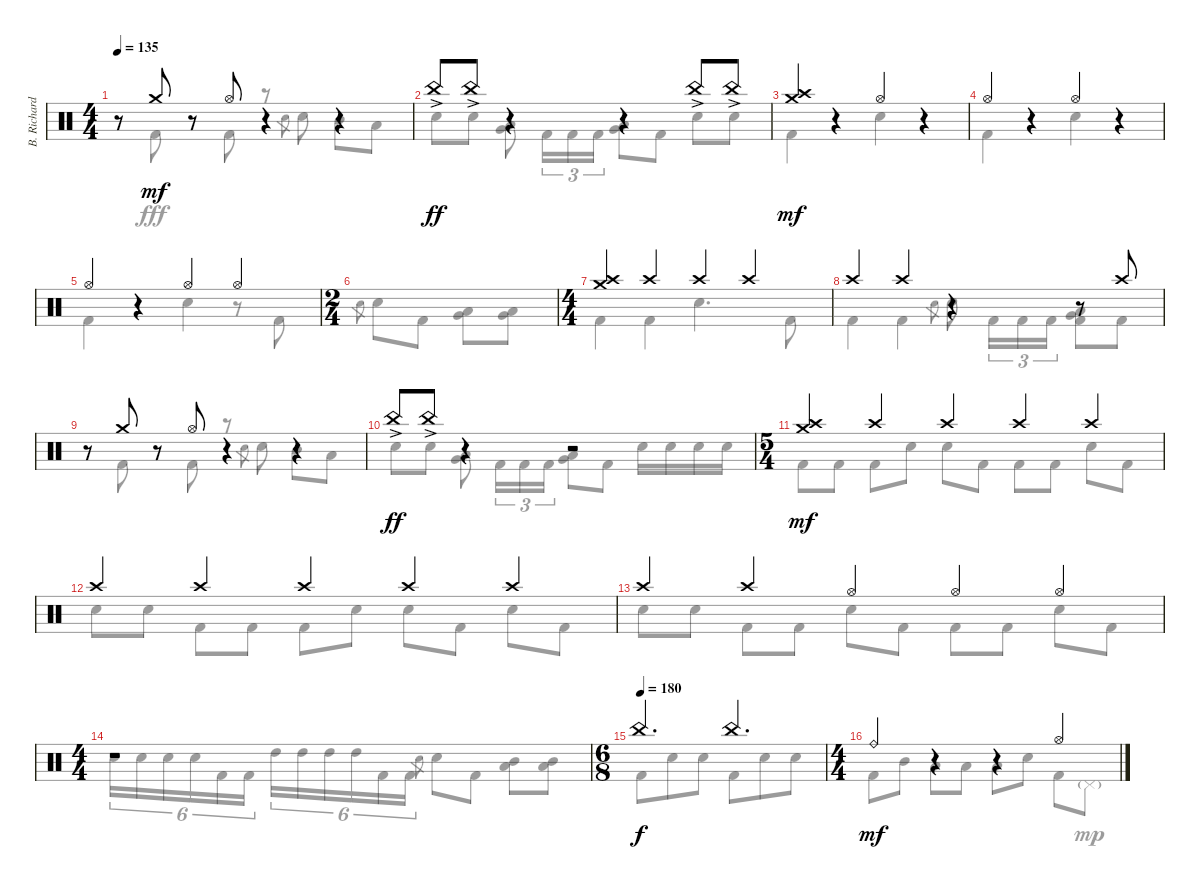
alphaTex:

\track ("B. Richardson Drums" "B. Richard") {instrument percussion}
\staff {score}
\articulation defaults
\voice
\ts (4 4)
\tempo 135
\clef neutral
\ks c
r.8{dy mf} "Crash medium (hit)".8 r.8 "Hi-Hat (open)".8 r.4 r.4 |
"China (hit)"{ac}.8{dy ff} "China (hit)"{ac}.8 r.4 r.4 "China (hit)"{ac}.8 "China (hit)"{ac}.8 |
("Crash high (hit)" "Crash medium (hit)").4{dy mf} r.4 "Hi-Hat (open)".4 r.4 |
"Hi-Hat (open)".4 r.4 "Hi-Hat (open)".4 r.4 |
"Hi-Hat (open)".4 r.4 "Hi-Hat (open)".4 "Hi-Hat (open)".4 |
\ts (2 4)
|
\ts (4 4)
("Crash high (hit)" "Crash medium (hit)").4 "Crash high (hit)".4 "Crash high (hit)".4 "Crash high (hit)".4 |
"Crash high (hit)".4 "Crash high (hit)".4 r.4 r.8 "Crash high (hit)".8 |
r.8 "Crash medium (hit)".8 r.8 "Hi-Hat (open)".8 r.4 r.4 |
"China (hit)"{ac}.8{dy ff} "China (hit)"{ac}.8 r.4 r.2 |
\ts (5 4)
("Crash high (hit)" "Crash medium (hit)").4{dy mf} "Crash high (hit)".4 "Crash high (hit)".4 "Crash high (hit)".4 "Crash high (hit)".4 |
"Crash high (hit)".4 "Crash high (hit)".4 "Crash high (hit)".4 "Crash high (hit)".4 "Crash high (hit)".4 |
"Crash high (hit)".4 "Crash high (hit)".4 "Hi-Hat (open)".4 "Hi-Hat (open)".4 "Hi-Hat (open)".4 |
\ts (4 4)
r.1 |
\ts (6 8)
\tempo (180)
"China (hit)".4{d dy f} "China (hit)".4{d} |
\ts (4 4)
"Ride (bell)".4{dy mf} r.4 r.4 "Hi-Hat (open)".4
\voice
\clef neutral
\ottava regular
\simile none
\ks c
r.8{dy fff} "Kick (hit) 2".8 r.8 "Kick (hit) 2".8 r.8 "Electric Snare (hit)".8{gr} "Electric Snare (hit)".8 "Mid Tom (hit)".8 "Low Tom (hit)".8 |
"Electric Snare (hit)".8 "Electric Snare (hit)".8 ("Low Tom (hit)" "Very Low Tom (hit)").8 "Kick (hit) 2".16{tu (3 2)} "Kick (hit) 2".16{tu (3 2)} "Kick (hit) 2".16{tu (3 2)} ("Low Tom (hit)" "Very Low Tom (hit)").8 "Kick (hit) 2".8 "Electric Snare (hit)".8 "Electric Snare (hit)".8 |
"Kick (hit) 2".4 r.4 "Electric Snare (hit)".4 r.4 |
"Kick (hit) 2".4 r.4 "Electric Snare (hit)".4 r.4 |
"Kick (hit) 2".4 r.4 "Electric Snare (hit)".4 r.8 "Kick (hit) 2".8 |
"Electric Snare (hit)".8{gr} "Electric Snare (hit)".8 "Kick (hit) 2".8 ("Low Tom (hit)" "Very Low Tom (hit)").8 ("Low Tom (hit)" "Very Low Tom (hit)").8 |
"Kick (hit) 2".4 "Kick (hit) 2".4 "Electric Snare (hit)".4{d} "Kick (hit) 2".8 |
"Kick (hit) 2".4 "Kick (hit) 2".4 "Electric Snare (hit)".8{gr} "Electric Snare (hit)".8 "Kick (hit) 2".16{tu (3 2)} "Kick (hit) 2".16{tu (3 2)} "Kick (hit) 2".16{tu (3 2)} ("Low Tom (hit)" "Very Low Tom (hit)" "Kick (hit) 2").8 "Kick (hit) 2".8 |
r.8 "Kick (hit) 2".8 r.8 "Kick (hit) 2".8 r.8 "Electric Snare (hit)".8{gr} "Electric Snare (hit)".8 "Mid Tom (hit)".8 "Low Tom (hit)".8 |
"Electric Snare (hit)".8 "Electric Snare (hit)".8 ("Low Tom (hit)" "Very Low Tom (hit)").8 "Kick (hit) 2".16{tu (3 2)} "Kick (hit) 2".16{tu (3 2)} "Kick (hit) 2".16{tu (3 2)} ("Low Tom (hit)" "Very Low Tom (hit)").8 "Kick (hit) 2".8 "Electric Snare (hit)".16 "Electric Snare (hit)".16 "Electric Snare (hit)".16 "Electric Snare (hit)".16 |
"Kick (hit) 2".8 "Kick (hit) 2".8 "Kick (hit) 2".8 "Electric Snare (hit)".8 "Electric Snare (hit)".8 "Kick (hit) 2".8 "Kick (hit) 2".8 "Kick (hit) 2".8 "Electric Snare (hit)".8 "Kick (hit) 2".8 |
"Electric Snare (hit)".8 "Electric Snare (hit)".8 "Kick (hit) 2".8 "Kick (hit) 2".8 "Kick (hit) 2".8 "Electric Snare (hit)".8 "Electric Snare (hit)".8 "Kick (hit) 2".8 "Electric Snare (hit)".8 "Kick (hit) 2".8 |
"Electric Snare (hit)".8 "Electric Snare (hit)".8 "Kick (hit) 2".8 "Kick (hit) 2".8 "Electric Snare (hit)".8 "Kick (hit) 2".8 "Kick (hit) 2".8 "Kick (hit) 2".8 "Electric Snare (hit)".8 "Kick (hit) 2".8 |
"Electric Snare (hit)".16{tu (6 4)} "Electric Snare (hit)".16{tu (6 4)} "Electric Snare (hit)".16{tu (6 4)} "Electric Snare (hit)".16{tu (6 4)} "Kick (hit) 2".16{tu (6 4)} "Kick (hit) 2".16{tu (6 4)} "High Tom (hit)".16{tu (6 4)} "High Tom (hit)".16{tu (6 4)} "High Tom (hit)".16{tu (6 4)} "High Tom (hit)".16{tu (6 4)} "Kick (hit) 2".16{tu (6 4)} "Kick (hit) 2".16{tu (6 4)} "Electric Snare (hit)".8{gr} "Electric Snare (hit)".8 "Kick (hit) 2".8 ("Mid Tom (hit)" "Low Tom (hit)").8 ("Mid Tom (hit)" "Low Tom (hit)").8 |
"Kick (hit) 2".8 "Electric Snare (hit)".8 "Electric Snare (hit)".8 "Kick (hit) 2".8 "Electric Snare (hit)".8 "Electric Snare (hit)".8 |
"Kick (hit) 2".8 "Mid Tom (hit)".8 "Low Tom (hit)".8 "Low Tom (hit)".8 "Low Tom (hit)".8 "Electric Snare (hit)".8 "Kick (hit) 2".8 "Pedal Hi-Hat (hit)"{g}.8{dy mp}
